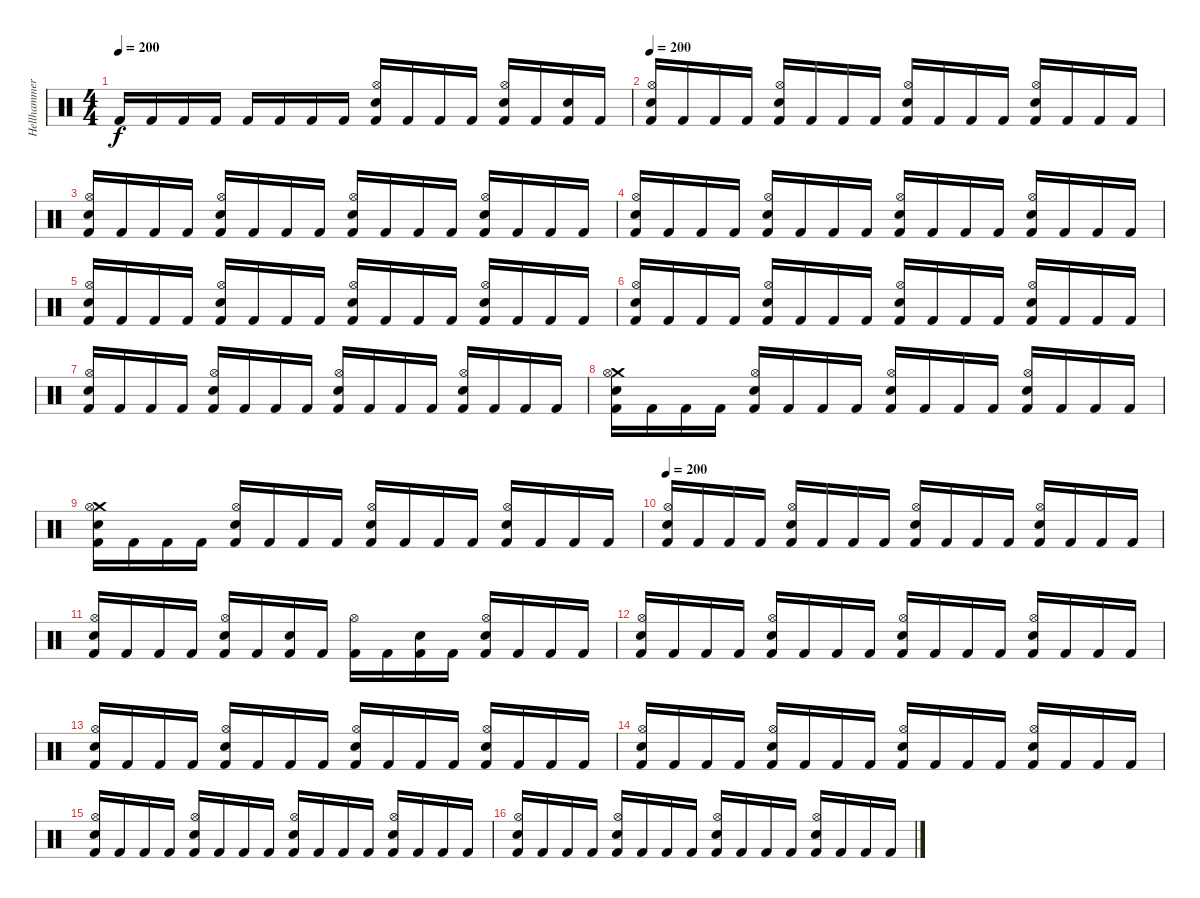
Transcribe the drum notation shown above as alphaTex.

\track ("Hellhammer" "Hellhammer") {instrument percussion}
\staff {score}
\articulation defaults
\ts (4 4)
\tempo 200
\clef neutral
\ks c "Kick (hit) 2".16{dy f} "Kick (hit) 2".16 "Kick (hit) 2".16 "Kick (hit) 2".16 "Kick (hit) 2".16 "Kick (hit) 2".16 "Kick (hit) 2".16 "Kick (hit) 2".16
("Hi-Hat (open)" "Electric Snare (hit)" "Kick (hit) 2").16 "Kick (hit) 2".16 "Kick (hit) 2".16 "Kick (hit) 2".16 ("Hi-Hat (open)" "Electric Snare (hit)" "Kick (hit) 2").16 "Kick (hit) 2".16 ("Electric Snare (hit)" "Kick (hit) 2").16 "Kick (hit) 2".16 |
\tempo 200
("Hi-Hat (open)" "Electric Snare (hit)" "Kick (hit) 2").16 "Kick (hit) 2".16 "Kick (hit) 2".16 "Kick (hit) 2".16 ("Hi-Hat (open)" "Electric Snare (hit)" "Kick (hit) 2").16 "Kick (hit) 2".16 "Kick (hit) 2".16 "Kick (hit) 2".16 ("Hi-Hat (open)" "Electric Snare (hit)" "Kick (hit) 2").16 "Kick (hit) 2".16 "Kick (hit) 2".16 "Kick (hit) 2".16 ("Hi-Hat (open)" "Electric Snare (hit)" "Kick (hit) 2").16 "Kick (hit) 2".16 "Kick (hit) 2".16 "Kick (hit) 2".16 |
("Hi-Hat (open)" "Electric Snare (hit)" "Kick (hit) 2").16 "Kick (hit) 2".16 "Kick (hit) 2".16 "Kick (hit) 2".16 ("Hi-Hat (open)" "Electric Snare (hit)" "Kick (hit) 2").16 "Kick (hit) 2".16 "Kick (hit) 2".16 "Kick (hit) 2".16 ("Hi-Hat (open)" "Electric Snare (hit)" "Kick (hit) 2").16 "Kick (hit) 2".16 "Kick (hit) 2".16 "Kick (hit) 2".16 ("Hi-Hat (open)" "Electric Snare (hit)" "Kick (hit) 2").16 "Kick (hit) 2".16 "Kick (hit) 2".16 "Kick (hit) 2".16 |
("Hi-Hat (open)" "Electric Snare (hit)" "Kick (hit) 2").16 "Kick (hit) 2".16 "Kick (hit) 2".16 "Kick (hit) 2".16 ("Hi-Hat (open)" "Electric Snare (hit)" "Kick (hit) 2").16 "Kick (hit) 2".16 "Kick (hit) 2".16 "Kick (hit) 2".16 ("Hi-Hat (open)" "Electric Snare (hit)" "Kick (hit) 2").16 "Kick (hit) 2".16 "Kick (hit) 2".16 "Kick (hit) 2".16 ("Hi-Hat (open)" "Electric Snare (hit)" "Kick (hit) 2").16 "Kick (hit) 2".16 "Kick (hit) 2".16 "Kick (hit) 2".16 |
("Hi-Hat (open)" "Electric Snare (hit)" "Kick (hit) 2").16 "Kick (hit) 2".16 "Kick (hit) 2".16 "Kick (hit) 2".16 ("Hi-Hat (open)" "Electric Snare (hit)" "Kick (hit) 2").16 "Kick (hit) 2".16 "Kick (hit) 2".16 "Kick (hit) 2".16 ("Hi-Hat (open)" "Electric Snare (hit)" "Kick (hit) 2").16 "Kick (hit) 2".16 "Kick (hit) 2".16 "Kick (hit) 2".16 ("Hi-Hat (open)" "Electric Snare (hit)" "Kick (hit) 2").16 "Kick (hit) 2".16 "Kick (hit) 2".16 "Kick (hit) 2".16 |
("Hi-Hat (open)" "Electric Snare (hit)" "Kick (hit) 2").16 "Kick (hit) 2".16 "Kick (hit) 2".16 "Kick (hit) 2".16 ("Hi-Hat (open)" "Electric Snare (hit)" "Kick (hit) 2").16 "Kick (hit) 2".16 "Kick (hit) 2".16 "Kick (hit) 2".16 ("Hi-Hat (open)" "Electric Snare (hit)" "Kick (hit) 2").16 "Kick (hit) 2".16 "Kick (hit) 2".16 "Kick (hit) 2".16 ("Hi-Hat (open)" "Electric Snare (hit)" "Kick (hit) 2").16 "Kick (hit) 2".16 "Kick (hit) 2".16 "Kick (hit) 2".16 |
("Hi-Hat (open)" "Electric Snare (hit)" "Kick (hit) 2").16 "Kick (hit) 2".16 "Kick (hit) 2".16 "Kick (hit) 2".16 ("Hi-Hat (open)" "Electric Snare (hit)" "Kick (hit) 2").16 "Kick (hit) 2".16 "Kick (hit) 2".16 "Kick (hit) 2".16 ("Hi-Hat (open)" "Electric Snare (hit)" "Kick (hit) 2").16 "Kick (hit) 2".16 "Kick (hit) 2".16 "Kick (hit) 2".16 ("Hi-Hat (open)" "Electric Snare (hit)" "Kick (hit) 2").16 "Kick (hit) 2".16 "Kick (hit) 2".16 "Kick (hit) 2".16 |
("Crash medium (hit)" "Hi-Hat (open)" "Electric Snare (hit)" "Kick (hit) 2").16 "Kick (hit) 2".16 "Kick (hit) 2".16 "Kick (hit) 2".16 ("Hi-Hat (open)" "Electric Snare (hit)" "Kick (hit) 2").16 "Kick (hit) 2".16 "Kick (hit) 2".16 "Kick (hit) 2".16 ("Hi-Hat (open)" "Electric Snare (hit)" "Kick (hit) 2").16 "Kick (hit) 2".16 "Kick (hit) 2".16 "Kick (hit) 2".16 ("Hi-Hat (open)" "Electric Snare (hit)" "Kick (hit) 2").16 "Kick (hit) 2".16 "Kick (hit) 2".16 "Kick (hit) 2".16 |
("Crash medium (hit)" "Hi-Hat (open)" "Electric Snare (hit)" "Kick (hit) 2").16 "Kick (hit) 2".16 "Kick (hit) 2".16 "Kick (hit) 2".16 ("Hi-Hat (open)" "Electric Snare (hit)" "Kick (hit) 2").16 "Kick (hit) 2".16 "Kick (hit) 2".16 "Kick (hit) 2".16 ("Hi-Hat (open)" "Electric Snare (hit)" "Kick (hit) 2").16 "Kick (hit) 2".16 "Kick (hit) 2".16 "Kick (hit) 2".16 ("Hi-Hat (open)" "Electric Snare (hit)" "Kick (hit) 2").16 "Kick (hit) 2".16 "Kick (hit) 2".16 "Kick (hit) 2".16 |
\tempo 200
("Hi-Hat (open)" "Electric Snare (hit)" "Kick (hit) 2").16 "Kick (hit) 2".16 "Kick (hit) 2".16 "Kick (hit) 2".16 ("Hi-Hat (open)" "Electric Snare (hit)" "Kick (hit) 2").16 "Kick (hit) 2".16 "Kick (hit) 2".16 "Kick (hit) 2".16 ("Hi-Hat (open)" "Electric Snare (hit)" "Kick (hit) 2").16 "Kick (hit) 2".16 "Kick (hit) 2".16 "Kick (hit) 2".16 ("Hi-Hat (open)" "Electric Snare (hit)" "Kick (hit) 2").16 "Kick (hit) 2".16 "Kick (hit) 2".16 "Kick (hit) 2".16 |
("Hi-Hat (open)" "Electric Snare (hit)" "Kick (hit) 2").16 "Kick (hit) 2".16 "Kick (hit) 2".16 "Kick (hit) 2".16 ("Hi-Hat (open)" "Electric Snare (hit)" "Kick (hit) 2").16 "Kick (hit) 2".16 ("Electric Snare (hit)" "Kick (hit) 2").16 "Kick (hit) 2".16 ("Hi-Hat (open)" "Kick (hit) 2").16 "Kick (hit) 2".16 ("Electric Snare (hit)" "Kick (hit) 2").16 "Kick (hit) 2".16 ("Hi-Hat (open)" "Electric Snare (hit)" "Kick (hit) 2").16 "Kick (hit) 2".16 "Kick (hit) 2".16 "Kick (hit) 2".16 |
("Hi-Hat (open)" "Electric Snare (hit)" "Kick (hit) 2").16 "Kick (hit) 2".16 "Kick (hit) 2".16 "Kick (hit) 2".16 ("Hi-Hat (open)" "Electric Snare (hit)" "Kick (hit) 2").16 "Kick (hit) 2".16 "Kick (hit) 2".16 "Kick (hit) 2".16 ("Hi-Hat (open)" "Electric Snare (hit)" "Kick (hit) 2").16 "Kick (hit) 2".16 "Kick (hit) 2".16 "Kick (hit) 2".16 ("Hi-Hat (open)" "Electric Snare (hit)" "Kick (hit) 2").16 "Kick (hit) 2".16 "Kick (hit) 2".16 "Kick (hit) 2".16 |
("Hi-Hat (open)" "Electric Snare (hit)" "Kick (hit) 2").16 "Kick (hit) 2".16 "Kick (hit) 2".16 "Kick (hit) 2".16 ("Hi-Hat (open)" "Electric Snare (hit)" "Kick (hit) 2").16 "Kick (hit) 2".16 "Kick (hit) 2".16 "Kick (hit) 2".16 ("Hi-Hat (open)" "Electric Snare (hit)" "Kick (hit) 2").16 "Kick (hit) 2".16 "Kick (hit) 2".16 "Kick (hit) 2".16 ("Hi-Hat (open)" "Electric Snare (hit)" "Kick (hit) 2").16 "Kick (hit) 2".16 "Kick (hit) 2".16 "Kick (hit) 2".16 |
("Hi-Hat (open)" "Electric Snare (hit)" "Kick (hit) 2").16 "Kick (hit) 2".16 "Kick (hit) 2".16 "Kick (hit) 2".16 ("Hi-Hat (open)" "Electric Snare (hit)" "Kick (hit) 2").16 "Kick (hit) 2".16 "Kick (hit) 2".16 "Kick (hit) 2".16 ("Hi-Hat (open)" "Electric Snare (hit)" "Kick (hit) 2").16 "Kick (hit) 2".16 "Kick (hit) 2".16 "Kick (hit) 2".16 ("Hi-Hat (open)" "Electric Snare (hit)" "Kick (hit) 2").16 "Kick (hit) 2".16 "Kick (hit) 2".16 "Kick (hit) 2".16 |
("Hi-Hat (open)" "Electric Snare (hit)" "Kick (hit) 2").16 "Kick (hit) 2".16 "Kick (hit) 2".16 "Kick (hit) 2".16 ("Hi-Hat (open)" "Electric Snare (hit)" "Kick (hit) 2").16 "Kick (hit) 2".16 "Kick (hit) 2".16 "Kick (hit) 2".16 ("Hi-Hat (open)" "Electric Snare (hit)" "Kick (hit) 2").16 "Kick (hit) 2".16 "Kick (hit) 2".16 "Kick (hit) 2".16 ("Hi-Hat (open)" "Electric Snare (hit)" "Kick (hit) 2").16 "Kick (hit) 2".16 "Kick (hit) 2".16 "Kick (hit) 2".16 |
("Hi-Hat (open)" "Electric Snare (hit)" "Kick (hit) 2").16 "Kick (hit) 2".16 "Kick (hit) 2".16 "Kick (hit) 2".16 ("Hi-Hat (open)" "Electric Snare (hit)" "Kick (hit) 2").16 "Kick (hit) 2".16 "Kick (hit) 2".16 "Kick (hit) 2".16 ("Hi-Hat (open)" "Electric Snare (hit)" "Kick (hit) 2").16 "Kick (hit) 2".16 "Kick (hit) 2".16 "Kick (hit) 2".16 ("Hi-Hat (open)" "Electric Snare (hit)" "Kick (hit) 2").16 "Kick (hit) 2".16 "Kick (hit) 2".16 "Kick (hit) 2".16
